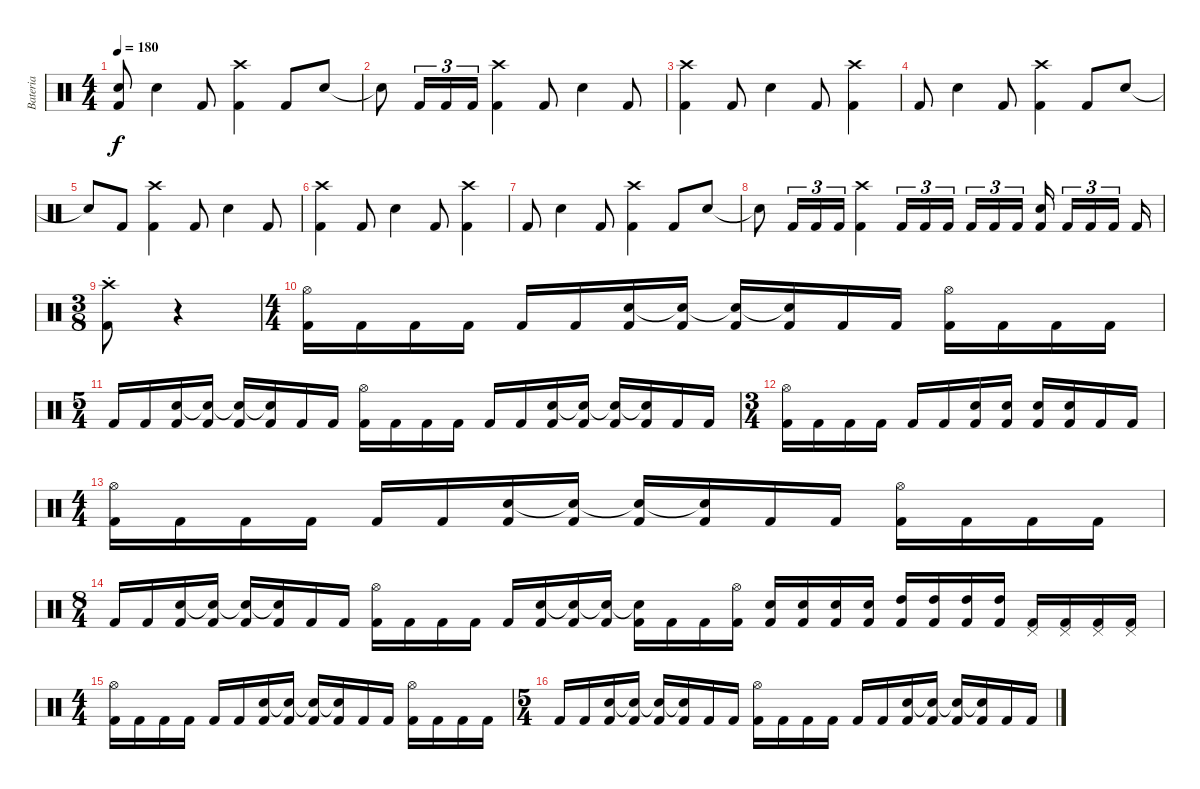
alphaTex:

\track ("Bateria" "Bateria") {instrument percussion}
\staff {score}
\articulation defaults
\ts (4 4)
\tempo 180
\clef neutral
\ks c
("Snare (hit)"{t} "Kick (hit) 2").8{dy f} "Electric Snare (hit)".4 "Kick (hit) 2".8 ("Crash high (hit)" "Kick (hit) 2").4 "Kick (hit) 2".8 "Electric Snare (hit)".8 |
"Snare (hit)"{t}.8 "Kick (hit) 2".16{tu (3 2)} "Kick (hit) 2".16{tu (3 2)} "Kick (hit) 2".16{tu (3 2)} ("Crash high (hit)" "Kick (hit) 2").4 "Kick (hit) 2".8 "Electric Snare (hit)".4 "Kick (hit) 2".8 |
("Crash high (hit)" "Kick (hit) 2").4 "Kick (hit) 2".8 "Electric Snare (hit)".4 "Kick (hit) 2".8 ("Crash high (hit)" "Kick (hit) 2").4 |
"Kick (hit) 2".8 "Electric Snare (hit)".4 "Kick (hit) 2".8 ("Crash high (hit)" "Kick (hit) 2").4 "Kick (hit) 2".8 "Electric Snare (hit)".8 |
"Snare (hit)"{t}.8 "Kick (hit) 2".8 ("Crash high (hit)" "Kick (hit) 2").4 "Kick (hit) 2".8 "Electric Snare (hit)".4 "Kick (hit) 2".8 |
("Crash high (hit)" "Kick (hit) 2").4 "Kick (hit) 2".8 "Electric Snare (hit)".4 "Kick (hit) 2".8 ("Crash high (hit)" "Kick (hit) 2").4 |
"Kick (hit) 2".8 "Electric Snare (hit)".4 "Kick (hit) 2".8 ("Crash high (hit)" "Kick (hit) 2").4 "Kick (hit) 2".8 "Electric Snare (hit)".8 |
"Snare (hit)"{t}.8 "Kick (hit) 2".16{tu (3 2)} "Kick (hit) 2".16{tu (3 2)} "Kick (hit) 2".16{tu (3 2)} ("Crash high (hit)" "Kick (hit) 2").4 "Kick (hit) 2".16{tu (3 2)} "Kick (hit) 2".16{tu (3 2)} "Kick (hit) 2".16{tu (3 2)} "Kick (hit) 2".16{tu (3 2)} "Kick (hit) 2".16{tu (3 2)} "Kick (hit) 2".16{tu (3 2)} ("Electric Snare (hit)" "Kick (hit) 2").16 "Kick (hit) 2".16{tu (3 2)} "Kick (hit) 2".16{tu (3 2)} "Kick (hit) 2".16{tu (3 2)} "Kick (hit) 2".16 |
\ts (3 8)
("Crash high (hit)"{st} "Kick (hit) 2"{st}).8 r.4 |
\ts (4 4)
("Hi-Hat (open)" "Kick (hit) 2").16 "Kick (hit) 2".16 "Kick (hit) 2".16 "Kick (hit) 2".16 "Kick (hit) 2".16 "Kick (hit) 2".16 ("Electric Snare (hit)" "Kick (hit) 2").16 ("Snare (hit)"{t} "Kick (hit) 2").16 ("Electric Snare (hit)"{t} "Kick (hit) 2").16 ("Snare (hit)"{t} "Kick (hit) 2").16 "Kick (hit) 2".16 "Kick (hit) 2".16 ("Hi-Hat (open)" "Kick (hit) 2").16 "Kick (hit) 2".16 "Kick (hit) 2".16 "Kick (hit) 2".16 |
\ts (5 4)
"Kick (hit) 2".16 "Kick (hit) 2".16 ("Electric Snare (hit)" "Kick (hit) 2").16 ("Snare (hit)"{t} "Kick (hit) 2").16 ("Snare (hit)"{t} "Kick (hit) 2").16 ("Snare (hit)"{t} "Kick (hit) 2").16 "Kick (hit) 2".16 "Kick (hit) 2".16 ("Hi-Hat (open)" "Kick (hit) 2").16 "Kick (hit) 2".16 "Kick (hit) 2".16 "Kick (hit) 2".16 "Kick (hit) 2".16 "Kick (hit) 2".16 ("Electric Snare (hit)" "Kick (hit) 2").16 ("Snare (hit)"{t} "Kick (hit) 2").16 ("Snare (hit)"{t} "Kick (hit) 2").16 ("Snare (hit)"{t} "Kick (hit) 2").16 "Kick (hit) 2".16 "Kick (hit) 2".16 |
\ts (3 4)
("Hi-Hat (open)" "Kick (hit) 2").16 "Kick (hit) 2".16 "Kick (hit) 2".16 "Kick (hit) 2".16 "Kick (hit) 2".16 "Kick (hit) 2".16 ("Electric Snare (hit)" "Kick (hit) 2").16 ("Electric Snare (hit)" "Kick (hit) 2").16 ("Electric Snare (hit)" "Kick (hit) 2").16 ("Electric Snare (hit)" "Kick (hit) 2").16 "Kick (hit) 2".16 "Kick (hit) 2".16 |
\ts (4 4)
("Hi-Hat (open)" "Kick (hit) 2").16 "Kick (hit) 2".16 "Kick (hit) 2".16 "Kick (hit) 2".16 "Kick (hit) 2".16 "Kick (hit) 2".16 ("Electric Snare (hit)" "Kick (hit) 2").16 ("Snare (hit)"{t} "Kick (hit) 2").16 ("Snare (hit)"{t} "Kick (hit) 2").16 ("Snare (hit)"{t} "Kick (hit) 2").16 "Kick (hit) 2".16 "Kick (hit) 2".16 ("Hi-Hat (open)" "Kick (hit) 2").16 "Kick (hit) 2".16 "Kick (hit) 2".16 "Kick (hit) 2".16 |
\ts (8 4)
"Kick (hit) 2".16 "Kick (hit) 2".16 ("Electric Snare (hit)" "Kick (hit) 2").16 ("Snare (hit)"{t} "Kick (hit) 2").16 ("Snare (hit)"{t} "Kick (hit) 2").16 ("Snare (hit)"{t} "Kick (hit) 2").16 "Kick (hit) 2".16 "Kick (hit) 2".16 ("Hi-Hat (open)" "Kick (hit) 2").16 "Kick (hit) 2".16 "Kick (hit) 2".16 "Kick (hit) 2".16 "Kick (hit) 2".16 ("Electric Snare (hit)" "Kick (hit) 2").16 ("Snare (hit)"{t} "Kick (hit) 2").16 ("Snare (hit)"{t} "Kick (hit) 2").16 ("Snare (hit)"{t} "Kick (hit) 2").16 "Kick (hit) 2".16 "Kick (hit) 2".16 ("Hi-Hat (open)" "Kick (hit) 2").16 ("Electric Snare (hit)" "Kick (hit) 2").16 ("Electric Snare (hit)" "Kick (hit) 2").16 ("Electric Snare (hit)" "Kick (hit) 2").16 ("Electric Snare (hit)" "Kick (hit) 2").16 ("High Tom (hit)" "Kick (hit) 2").16 ("High Tom (hit)" "Kick (hit) 2").16 ("High Tom (hit)" "Kick (hit) 2").16 ("High Tom (hit)" "Kick (hit) 2").16 ("Pedal Hi-Hat (hit)" "Kick (hit) 2").16 ("Pedal Hi-Hat (hit)" "Kick (hit) 2").16 ("Pedal Hi-Hat (hit)" "Kick (hit) 2").16 ("Pedal Hi-Hat (hit)" "Kick (hit) 2").16 |
\ts (4 4)
("Hi-Hat (open)" "Kick (hit) 2").16 "Kick (hit) 2".16 "Kick (hit) 2".16 "Kick (hit) 2".16 "Kick (hit) 2".16 "Kick (hit) 2".16 ("Electric Snare (hit)" "Kick (hit) 2").16 ("Snare (hit)"{t} "Kick (hit) 2").16 ("Electric Snare (hit)"{t} "Kick (hit) 2").16 ("Snare (hit)"{t} "Kick (hit) 2").16 "Kick (hit) 2".16 "Kick (hit) 2".16 ("Hi-Hat (open)" "Kick (hit) 2").16 "Kick (hit) 2".16 "Kick (hit) 2".16 "Kick (hit) 2".16 |
\ts (5 4)
"Kick (hit) 2".16 "Kick (hit) 2".16 ("Electric Snare (hit)" "Kick (hit) 2").16 ("Snare (hit)"{t} "Kick (hit) 2").16 ("Snare (hit)"{t} "Kick (hit) 2").16 ("Snare (hit)"{t} "Kick (hit) 2").16 "Kick (hit) 2".16 "Kick (hit) 2".16 ("Hi-Hat (open)" "Kick (hit) 2").16 "Kick (hit) 2".16 "Kick (hit) 2".16 "Kick (hit) 2".16 "Kick (hit) 2".16 "Kick (hit) 2".16 ("Electric Snare (hit)" "Kick (hit) 2").16 ("Snare (hit)"{t} "Kick (hit) 2").16 ("Snare (hit)"{t} "Kick (hit) 2").16 ("Snare (hit)"{t} "Kick (hit) 2").16 "Kick (hit) 2".16 "Kick (hit) 2".16
